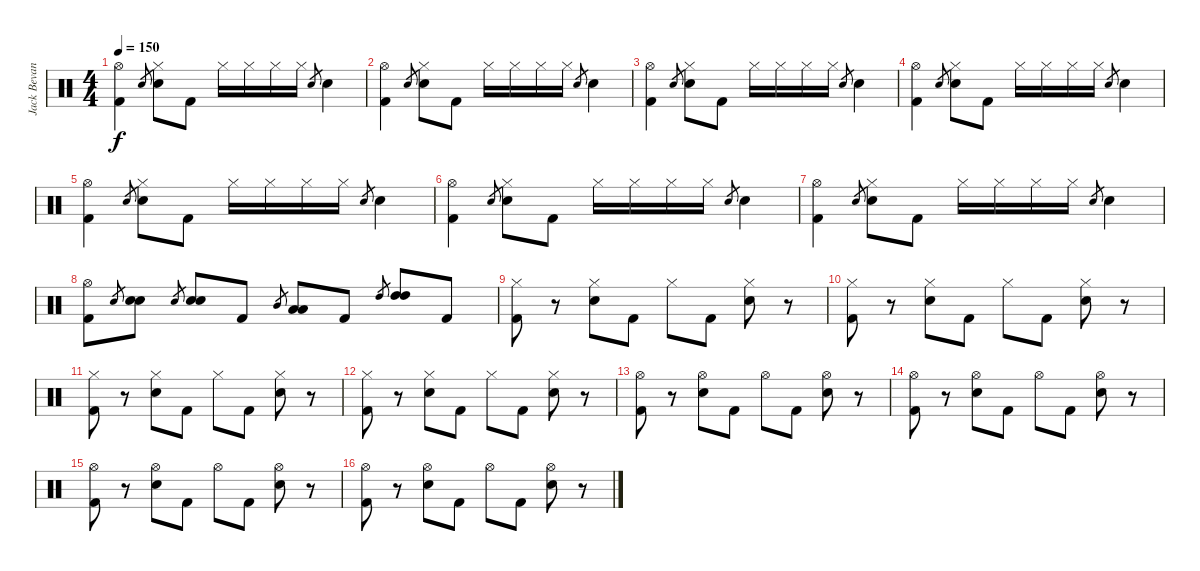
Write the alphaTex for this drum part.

\track ("Jack Bevan (Percussion)" "Jack Bevan") {instrument percussion bank 255}
\staff {score}
\articulation defaults
\ts (4 4)
\tempo 150
\clef neutral
\ks c
("Hi-Hat (open)" "Kick (hit) 2").4{dy f} "Snare (hit) 2".8{gr} ("Hi-Hat (closed)" "Snare (hit) 2").8 "Kick (hit) 2".8 "Hi-Hat (closed)".16 "Hi-Hat (closed)".16 "Hi-Hat (closed)".16 "Hi-Hat (closed)".16 "Snare (hit) 2".8{gr} "Snare (hit) 2".4 |
("Hi-Hat (open)" "Kick (hit) 2").4 "Snare (hit) 2".8{gr} ("Hi-Hat (closed)" "Snare (hit) 2").8 "Kick (hit) 2".8 "Hi-Hat (closed)".16 "Hi-Hat (closed)".16 "Hi-Hat (closed)".16 "Hi-Hat (closed)".16 "Snare (hit) 2".8{gr} "Snare (hit) 2".4 |
("Hi-Hat (open)" "Kick (hit) 2").4 "Snare (hit) 2".8{gr} ("Hi-Hat (closed)" "Snare (hit) 2").8 "Kick (hit) 2".8 "Hi-Hat (closed)".16 "Hi-Hat (closed)".16 "Hi-Hat (closed)".16 "Hi-Hat (closed)".16 "Snare (hit) 2".8{gr} "Snare (hit) 2".4 |
("Hi-Hat (open)" "Kick (hit) 2").4 "Snare (hit) 2".8{gr} ("Hi-Hat (closed)" "Snare (hit) 2").8 "Kick (hit) 2".8 "Hi-Hat (closed)".16 "Hi-Hat (closed)".16 "Hi-Hat (closed)".16 "Hi-Hat (closed)".16 "Snare (hit) 2".8{gr} "Snare (hit) 2".4 |
("Hi-Hat (open)" "Kick (hit) 2").4 "Snare (hit) 2".8{gr} ("Hi-Hat (closed)" "Snare (hit) 2").8 "Kick (hit) 2".8 "Hi-Hat (closed)".16 "Hi-Hat (closed)".16 "Hi-Hat (closed)".16 "Hi-Hat (closed)".16 "Snare (hit) 2".8{gr} "Snare (hit) 2".4 |
("Hi-Hat (open)" "Kick (hit) 2").4 "Snare (hit) 2".8{gr} ("Hi-Hat (closed)" "Snare (hit) 2").8 "Kick (hit) 2".8 "Hi-Hat (closed)".16 "Hi-Hat (closed)".16 "Hi-Hat (closed)".16 "Hi-Hat (closed)".16 "Snare (hit) 2".8{gr} "Snare (hit) 2".4 |
("Hi-Hat (open)" "Kick (hit) 2").4 "Snare (hit) 2".8{gr} ("Hi-Hat (closed)" "Snare (hit) 2").8 "Kick (hit) 2".8 "Hi-Hat (closed)".16 "Hi-Hat (closed)".16 "Hi-Hat (closed)".16 "Hi-Hat (closed)".16 "Snare (hit) 2".8{gr} "Snare (hit) 2".4 |
("Hi-Hat (open)" "Kick (hit) 2").8 "Snare (hit) 2".8{gr} ("Snare (hit) 2" "Snare (hit) 2").8 "Snare (hit) 2".8{gr} ("Snare (hit) 2" "Snare (hit) 2").8 "Kick (hit) 2".8 "Mid Tom (hit)".8{gr} ("Low Tom (hit)" "Low Tom (hit)").8 "Kick (hit) 2".8 "High Tom (hit)".8{gr} ("High Tom (hit)" "High Tom (hit)").8 "Kick (hit) 2".8 |
("Hi-Hat (closed)" "Kick (hit) 2").8{volume 16} r.8 ("Hi-Hat (closed)" "Snare (hit) 2").8 "Kick (hit) 2".8 "Hi-Hat (closed)".8 "Kick (hit) 2".8 ("Hi-Hat (closed)" "Snare (hit) 2").8 r.8 |
("Hi-Hat (closed)" "Kick (hit) 2").8 r.8 ("Hi-Hat (closed)" "Snare (hit) 2").8 "Kick (hit) 2".8 "Hi-Hat (closed)".8 "Kick (hit) 2".8 ("Hi-Hat (closed)" "Snare (hit) 2").8 r.8 |
("Hi-Hat (closed)" "Kick (hit) 2").8 r.8 ("Hi-Hat (closed)" "Snare (hit) 2").8 "Kick (hit) 2".8 "Hi-Hat (closed)".8 "Kick (hit) 2".8 ("Hi-Hat (closed)" "Snare (hit) 2").8 r.8 |
("Hi-Hat (closed)" "Kick (hit) 2").8 r.8 ("Hi-Hat (closed)" "Snare (hit) 2").8 "Kick (hit) 2".8 "Hi-Hat (closed)".8 "Kick (hit) 2".8 ("Hi-Hat (closed)" "Snare (hit) 2").8 r.8 |
("Hi-Hat (open)" "Kick (hit) 2").8{volume 16} r.8 ("Hi-Hat (open)" "Snare (hit) 2").8 "Kick (hit) 2".8 "Hi-Hat (open)".8 "Kick (hit) 2".8 ("Hi-Hat (open)" "Snare (hit) 2").8 r.8 |
("Hi-Hat (open)" "Kick (hit) 2").8 r.8 ("Hi-Hat (open)" "Snare (hit) 2").8 "Kick (hit) 2".8 "Hi-Hat (open)".8 "Kick (hit) 2".8 ("Hi-Hat (open)" "Snare (hit) 2").8 r.8 |
("Hi-Hat (open)" "Kick (hit) 2").8 r.8 ("Hi-Hat (open)" "Snare (hit) 2").8 "Kick (hit) 2".8 "Hi-Hat (open)".8 "Kick (hit) 2".8 ("Hi-Hat (open)" "Snare (hit) 2").8 r.8 |
("Hi-Hat (open)" "Kick (hit) 2").8 r.8 ("Hi-Hat (open)" "Snare (hit) 2").8 "Kick (hit) 2".8 "Hi-Hat (open)".8 "Kick (hit) 2".8 ("Hi-Hat (open)" "Snare (hit) 2").8 r.8
